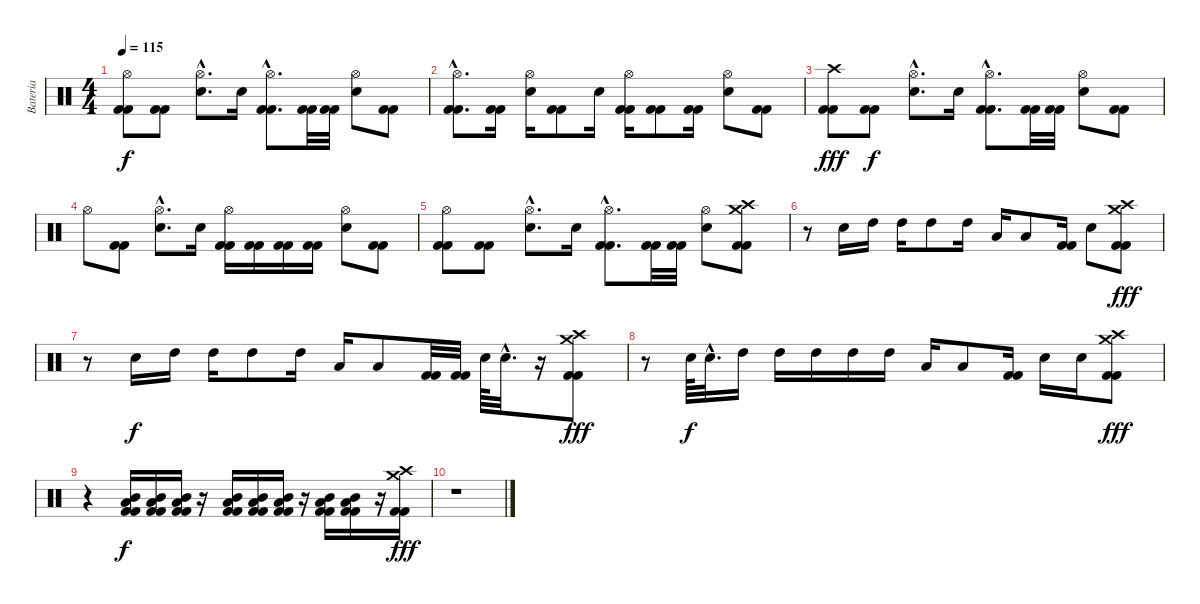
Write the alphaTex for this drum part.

\track ("Bateria" "Bateria") {instrument percussion}
\staff {score}
\articulation defaults
\ts (4 4)
\tempo 115
\clef neutral
\ks c
("Hi-Hat (open)" "Kick (hit) 2" "Kick (hit) 2").8{dy f} ("Kick (hit) 2" "Kick (hit) 2").8 ("Hi-Hat (open)"{hac} "Electric Snare (hit)"{hac}).8{d} "Electric Snare (hit)".16 ("Hi-Hat (open)"{hac} "Kick (hit) 2"{hac} "Kick (hit) 2"{hac}).8{d} ("Kick (hit) 2" "Kick (hit) 2").32 ("Kick (hit) 2" "Kick (hit) 2").32 ("Hi-Hat (open)" "Electric Snare (hit)").8 ("Kick (hit) 2" "Kick (hit) 2").8 |
("Hi-Hat (open)"{hac} "Kick (hit) 2"{hac} "Kick (hit) 2"{hac}).8{d} ("Kick (hit) 2" "Kick (hit) 2").16 ("Hi-Hat (open)" "Electric Snare (hit)").16 ("Kick (hit) 2" "Kick (hit) 2").8 "Electric Snare (hit)".16 ("Hi-Hat (open)" "Kick (hit) 2" "Kick (hit) 2").16 ("Kick (hit) 2" "Kick (hit) 2").8 ("Kick (hit) 2" "Kick (hit) 2").16 ("Hi-Hat (open)" "Electric Snare (hit)").8 ("Kick (hit) 2" "Kick (hit) 2").8 |
("Crash high (hit)" "Kick (hit) 2" "Kick (hit) 2").8{dy fff} ("Kick (hit) 2" "Kick (hit) 2").8{dy f} ("Hi-Hat (open)"{hac} "Electric Snare (hit)"{hac}).8{d} "Electric Snare (hit)".16 ("Hi-Hat (open)"{hac} "Kick (hit) 2"{hac} "Kick (hit) 2"{hac}).8{d} ("Kick (hit) 2" "Kick (hit) 2").32 ("Kick (hit) 2" "Kick (hit) 2").32 ("Hi-Hat (open)" "Electric Snare (hit)").8 ("Kick (hit) 2" "Kick (hit) 2").8 |
"Hi-Hat (open)".8 ("Kick (hit) 2" "Kick (hit) 2").8 ("Hi-Hat (open)"{hac} "Electric Snare (hit)"{hac}).8{d} "Electric Snare (hit)".16 ("Hi-Hat (open)" "Kick (hit) 2" "Kick (hit) 2").16 ("Kick (hit) 2" "Kick (hit) 2").16 ("Kick (hit) 2" "Kick (hit) 2").16 ("Kick (hit) 2" "Kick (hit) 2").16 ("Hi-Hat (open)" "Electric Snare (hit)").8 ("Kick (hit) 2" "Kick (hit) 2").8 |
("Hi-Hat (open)" "Kick (hit) 2" "Kick (hit) 2").8 ("Kick (hit) 2" "Kick (hit) 2").8 ("Hi-Hat (open)"{hac} "Electric Snare (hit)"{hac}).8{d} "Electric Snare (hit)".16 ("Hi-Hat (open)"{hac} "Kick (hit) 2"{hac} "Kick (hit) 2"{hac}).8{d} ("Kick (hit) 2" "Kick (hit) 2").32 ("Kick (hit) 2" "Kick (hit) 2").32 ("Hi-Hat (open)" "Electric Snare (hit)").8 ("Crash high (hit)" "Crash medium (hit)" "Kick (hit) 2" "Kick (hit) 2").8 |
r.8 "Electric Snare (hit)".16 "High Tom (hit)".16 "High Tom (hit)".16 "High Tom (hit)".8 "High Tom (hit)".16 "Low Tom (hit)".16 "Low Tom (hit)".8 ("Kick (hit) 2" "Kick (hit) 2").16 "Electric Snare (hit)".8 ("Crash high (hit)" "Crash medium (hit)" "Kick (hit) 2" "Kick (hit) 2").8{dy fff} |
r.8 "Electric Snare (hit)".16{dy f} "High Tom (hit)".16 "High Tom (hit)".16 "High Tom (hit)".8 "High Tom (hit)".16 "Low Tom (hit)".16 "Low Tom (hit)".8 ("Kick (hit) 2" "Kick (hit) 2").32 ("Kick (hit) 2" "Kick (hit) 2").32 "Electric Snare (hit)".64 "Electric Snare (hit)"{hac}.32{d} r.16 ("Crash high (hit)" "Crash medium (hit)" "Kick (hit) 2" "Kick (hit) 2").8{dy fff} |
r.8 "Electric Snare (hit)".64{dy f} "Electric Snare (hit)"{hac}.32{d} "High Tom (hit)".16 "High Tom (hit)".16 "High Tom (hit)".16 "High Tom (hit)".16 "High Tom (hit)".16 "Low Tom (hit)".16 "Low Tom (hit)".8 ("Kick (hit) 2" "Kick (hit) 2").16 "Electric Snare (hit)".16 "Electric Snare (hit)".16 ("Crash high (hit)" "Crash medium (hit)" "Kick (hit) 2" "Kick (hit) 2").8{dy fff} |
r.4 ("Mid Tom (hit)" "Low Tom (hit)" "Kick (hit) 2" "Kick (hit) 2").16{dy f} ("Mid Tom (hit)" "Low Tom (hit)" "Kick (hit) 2" "Kick (hit) 2").16 ("Mid Tom (hit)" "Low Tom (hit)" "Kick (hit) 2" "Kick (hit) 2").16 r.16 ("Mid Tom (hit)" "Low Tom (hit)" "Kick (hit) 2" "Kick (hit) 2").16 ("Mid Tom (hit)" "Low Tom (hit)" "Kick (hit) 2" "Kick (hit) 2").16 ("Mid Tom (hit)" "Low Tom (hit)" "Kick (hit) 2" "Kick (hit) 2").16 r.16 ("Mid Tom (hit)" "Low Tom (hit)" "Kick (hit) 2" "Kick (hit) 2").16 ("Mid Tom (hit)" "Low Tom (hit)" "Kick (hit) 2" "Kick (hit) 2").16 r.16 ("Crash high (hit)" "Crash medium (hit)" "Kick (hit) 2" "Kick (hit) 2").16{dy fff} |
r.1
